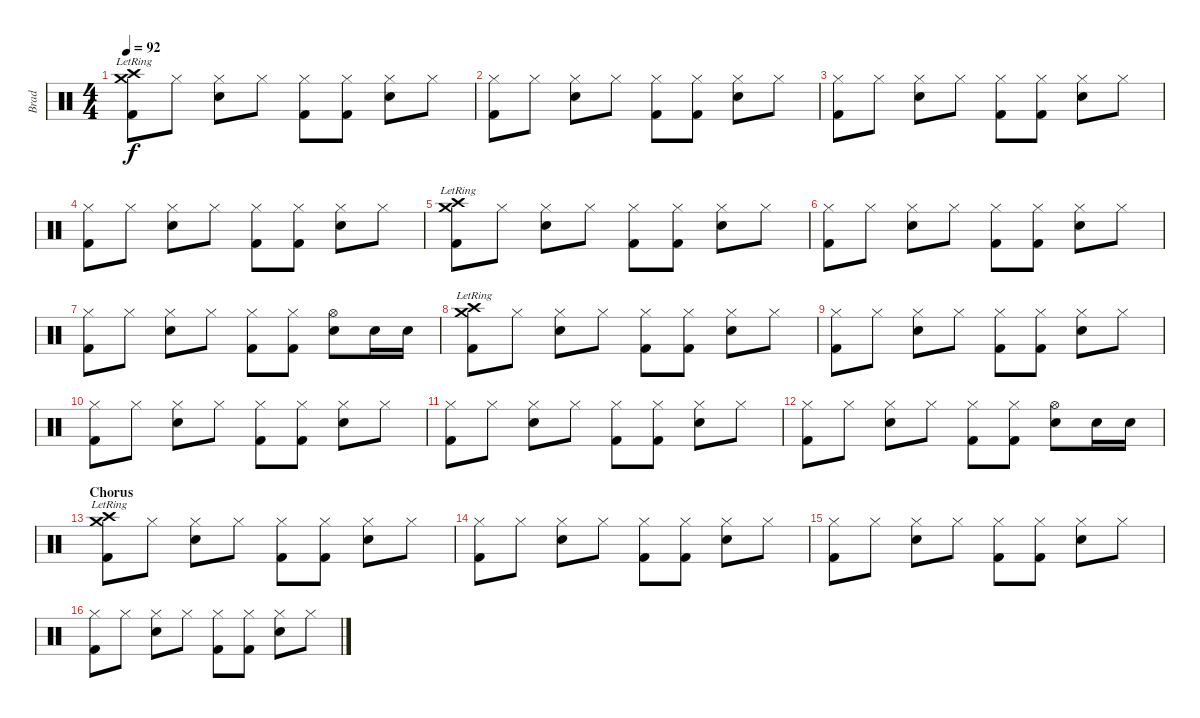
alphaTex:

\track ("Brad" "Brad") {instrument percussion}
\staff {score}
\articulation defaults
\ts (4 4)
\tempo 92
\clef neutral
\ks c
("Crash high (hit)"{lr} "Crash medium (hit)"{lr} "Kick (hit) 2").8{dy f} "Hi-Hat (closed)".8 ("Hi-Hat (closed)" "Electric Snare (hit)").8 "Hi-Hat (closed)".8 ("Hi-Hat (closed)" "Kick (hit) 2").8 ("Hi-Hat (closed)" "Kick (hit) 2").8 ("Hi-Hat (closed)" "Electric Snare (hit)").8 "Hi-Hat (closed)".8 |
("Hi-Hat (closed)" "Kick (hit) 2").8 "Hi-Hat (closed)".8 ("Hi-Hat (closed)" "Electric Snare (hit)").8 "Hi-Hat (closed)".8 ("Hi-Hat (closed)" "Kick (hit) 2").8 ("Hi-Hat (closed)" "Kick (hit) 2").8 ("Hi-Hat (closed)" "Electric Snare (hit)").8 "Hi-Hat (closed)".8 |
("Hi-Hat (closed)" "Kick (hit) 2").8 "Hi-Hat (closed)".8 ("Hi-Hat (closed)" "Electric Snare (hit)").8 "Hi-Hat (closed)".8 ("Hi-Hat (closed)" "Kick (hit) 2").8 ("Hi-Hat (closed)" "Kick (hit) 2").8 ("Hi-Hat (closed)" "Electric Snare (hit)").8 "Hi-Hat (closed)".8 |
("Hi-Hat (closed)" "Kick (hit) 2").8 "Hi-Hat (closed)".8 ("Hi-Hat (closed)" "Electric Snare (hit)").8 "Hi-Hat (closed)".8 ("Hi-Hat (closed)" "Kick (hit) 2").8 ("Hi-Hat (closed)" "Kick (hit) 2").8 ("Hi-Hat (closed)" "Electric Snare (hit)").8 "Hi-Hat (closed)".8 |
("Crash high (hit)"{lr} "Crash medium (hit)"{lr} "Kick (hit) 2").8 "Hi-Hat (closed)".8 ("Hi-Hat (closed)" "Electric Snare (hit)").8 "Hi-Hat (closed)".8 ("Hi-Hat (closed)" "Kick (hit) 2").8 ("Hi-Hat (closed)" "Kick (hit) 2").8 ("Hi-Hat (closed)" "Electric Snare (hit)").8 "Hi-Hat (closed)".8 |
("Hi-Hat (closed)" "Kick (hit) 2").8 "Hi-Hat (closed)".8 ("Hi-Hat (closed)" "Electric Snare (hit)").8 "Hi-Hat (closed)".8 ("Hi-Hat (closed)" "Kick (hit) 2").8 ("Hi-Hat (closed)" "Kick (hit) 2").8 ("Hi-Hat (closed)" "Electric Snare (hit)").8 "Hi-Hat (closed)".8 |
("Hi-Hat (closed)" "Kick (hit) 2").8 "Hi-Hat (closed)".8 ("Hi-Hat (closed)" "Electric Snare (hit)").8 "Hi-Hat (closed)".8 ("Hi-Hat (closed)" "Kick (hit) 2").8 ("Hi-Hat (closed)" "Kick (hit) 2").8 ("Hi-Hat (open)" "Electric Snare (hit)").8 "Electric Snare (hit)".16 "Electric Snare (hit)".16 |
("Crash high (hit)"{lr} "Crash medium (hit)"{lr} "Kick (hit) 2").8 "Hi-Hat (closed)".8 ("Hi-Hat (closed)" "Electric Snare (hit)").8 "Hi-Hat (closed)".8 ("Hi-Hat (closed)" "Kick (hit) 2").8 ("Hi-Hat (closed)" "Kick (hit) 2").8 ("Hi-Hat (closed)" "Electric Snare (hit)").8 "Hi-Hat (closed)".8 |
("Hi-Hat (closed)" "Kick (hit) 2").8 "Hi-Hat (closed)".8 ("Hi-Hat (closed)" "Electric Snare (hit)").8 "Hi-Hat (closed)".8 ("Hi-Hat (closed)" "Kick (hit) 2").8 ("Hi-Hat (closed)" "Kick (hit) 2").8 ("Hi-Hat (closed)" "Electric Snare (hit)").8 "Hi-Hat (closed)".8 |
("Hi-Hat (closed)" "Kick (hit) 2").8 "Hi-Hat (closed)".8 ("Hi-Hat (closed)" "Electric Snare (hit)").8 "Hi-Hat (closed)".8 ("Hi-Hat (closed)" "Kick (hit) 2").8 ("Hi-Hat (closed)" "Kick (hit) 2").8 ("Hi-Hat (closed)" "Electric Snare (hit)").8 "Hi-Hat (closed)".8 |
("Hi-Hat (closed)" "Kick (hit) 2").8 "Hi-Hat (closed)".8 ("Hi-Hat (closed)" "Electric Snare (hit)").8 "Hi-Hat (closed)".8 ("Hi-Hat (closed)" "Kick (hit) 2").8 ("Hi-Hat (closed)" "Kick (hit) 2").8 ("Hi-Hat (closed)" "Electric Snare (hit)").8 "Hi-Hat (closed)".8 |
("Hi-Hat (closed)" "Kick (hit) 2").8 "Hi-Hat (closed)".8 ("Hi-Hat (closed)" "Electric Snare (hit)").8 "Hi-Hat (closed)".8 ("Hi-Hat (closed)" "Kick (hit) 2").8 ("Hi-Hat (closed)" "Kick (hit) 2").8 ("Hi-Hat (open)" "Electric Snare (hit)").8 "Electric Snare (hit)".16 "Electric Snare (hit)".16 |
\section ("" "Chorus")
("Crash high (hit)"{lr} "Crash medium (hit)"{lr} "Kick (hit) 2").8 "Hi-Hat (closed)".8 ("Hi-Hat (closed)" "Electric Snare (hit)").8 "Hi-Hat (closed)".8 ("Hi-Hat (closed)" "Kick (hit) 2").8 ("Hi-Hat (closed)" "Kick (hit) 2").8 ("Hi-Hat (closed)" "Electric Snare (hit)").8 "Hi-Hat (closed)".8 |
("Hi-Hat (closed)" "Kick (hit) 2").8 "Hi-Hat (closed)".8 ("Hi-Hat (closed)" "Electric Snare (hit)").8 "Hi-Hat (closed)".8 ("Hi-Hat (closed)" "Kick (hit) 2").8 ("Hi-Hat (closed)" "Kick (hit) 2").8 ("Hi-Hat (closed)" "Electric Snare (hit)").8 "Hi-Hat (closed)".8 |
("Hi-Hat (closed)" "Kick (hit) 2").8 "Hi-Hat (closed)".8 ("Hi-Hat (closed)" "Electric Snare (hit)").8 "Hi-Hat (closed)".8 ("Hi-Hat (closed)" "Kick (hit) 2").8 ("Hi-Hat (closed)" "Kick (hit) 2").8 ("Hi-Hat (closed)" "Electric Snare (hit)").8 "Hi-Hat (closed)".8 |
("Hi-Hat (closed)" "Kick (hit) 2").8 "Hi-Hat (closed)".8 ("Hi-Hat (closed)" "Electric Snare (hit)").8 "Hi-Hat (closed)".8 ("Hi-Hat (closed)" "Kick (hit) 2").8 ("Hi-Hat (closed)" "Kick (hit) 2").8 ("Hi-Hat (closed)" "Electric Snare (hit)").8 "Hi-Hat (closed)".8
